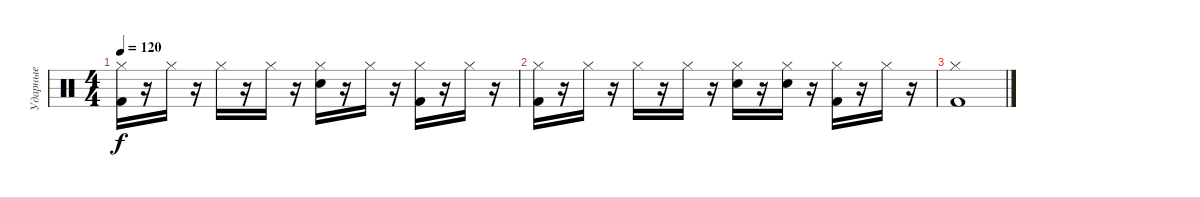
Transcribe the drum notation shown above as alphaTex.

\track ("Ударные" "Ударные") {instrument percussion}
\staff {score}
\articulation defaults
\ts (4 4)
\tempo 120
\clef neutral
\ks c
("Hi-Hat (closed)" "Kick (hit) 2").16{dy f} r.16 "Hi-Hat (closed)".16 r.16 "Hi-Hat (closed)".16 r.16 "Hi-Hat (closed)".16 r.16 ("Hi-Hat (closed)" "Snare (hit) 2").16 r.16 "Hi-Hat (closed)".16 r.16 ("Hi-Hat (closed)" "Kick (hit) 2").16 r.16 "Hi-Hat (closed)".16 r.16 |
("Hi-Hat (closed)" "Kick (hit) 2").16 r.16 "Hi-Hat (closed)".16 r.16 "Hi-Hat (closed)".16 r.16 "Hi-Hat (closed)".16 r.16 ("Hi-Hat (closed)" "Snare (hit) 2").16 r.16 ("Hi-Hat (closed)" "Snare (hit) 2").16 r.16 ("Hi-Hat (closed)" "Kick (hit) 2").16 r.16 "Hi-Hat (closed)".16 r.16 |
("Hi-Hat (closed)" "Kick (hit) 2").1
